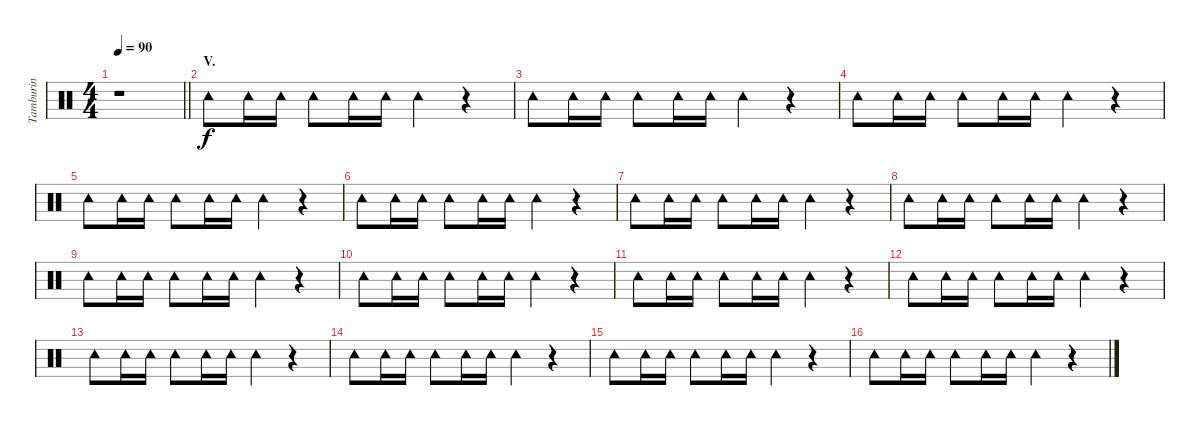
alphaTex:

\track ("Tamburin" "Tamburin") {instrument percussion}
\staff {score}
\articulation defaults
\ts (4 4)
\tempo 90
\clef neutral
\barLineRight lightlight
\ks c
r.1{dy f} |
\section ("" "V.")
"Tambourine (hit)".8 "Tambourine (hit)".16 "Tambourine (hit)".16 "Tambourine (hit)".8 "Tambourine (hit)".16 "Tambourine (hit)".16 "Tambourine (hit)".4 r.4 |
"Tambourine (hit)".8 "Tambourine (hit)".16 "Tambourine (hit)".16 "Tambourine (hit)".8 "Tambourine (hit)".16 "Tambourine (hit)".16 "Tambourine (hit)".4 r.4 |
"Tambourine (hit)".8 "Tambourine (hit)".16 "Tambourine (hit)".16 "Tambourine (hit)".8 "Tambourine (hit)".16 "Tambourine (hit)".16 "Tambourine (hit)".4 r.4 |
"Tambourine (hit)".8 "Tambourine (hit)".16 "Tambourine (hit)".16 "Tambourine (hit)".8 "Tambourine (hit)".16 "Tambourine (hit)".16 "Tambourine (hit)".4 r.4 |
"Tambourine (hit)".8 "Tambourine (hit)".16 "Tambourine (hit)".16 "Tambourine (hit)".8 "Tambourine (hit)".16 "Tambourine (hit)".16 "Tambourine (hit)".4 r.4 |
"Tambourine (hit)".8 "Tambourine (hit)".16 "Tambourine (hit)".16 "Tambourine (hit)".8 "Tambourine (hit)".16 "Tambourine (hit)".16 "Tambourine (hit)".4 r.4 |
"Tambourine (hit)".8 "Tambourine (hit)".16 "Tambourine (hit)".16 "Tambourine (hit)".8 "Tambourine (hit)".16 "Tambourine (hit)".16 "Tambourine (hit)".4 r.4 |
"Tambourine (hit)".8 "Tambourine (hit)".16 "Tambourine (hit)".16 "Tambourine (hit)".8 "Tambourine (hit)".16 "Tambourine (hit)".16 "Tambourine (hit)".4 r.4 |
"Tambourine (hit)".8 "Tambourine (hit)".16 "Tambourine (hit)".16 "Tambourine (hit)".8 "Tambourine (hit)".16 "Tambourine (hit)".16 "Tambourine (hit)".4 r.4 |
"Tambourine (hit)".8 "Tambourine (hit)".16 "Tambourine (hit)".16 "Tambourine (hit)".8 "Tambourine (hit)".16 "Tambourine (hit)".16 "Tambourine (hit)".4 r.4 |
"Tambourine (hit)".8 "Tambourine (hit)".16 "Tambourine (hit)".16 "Tambourine (hit)".8 "Tambourine (hit)".16 "Tambourine (hit)".16 "Tambourine (hit)".4 r.4 |
"Tambourine (hit)".8 "Tambourine (hit)".16 "Tambourine (hit)".16 "Tambourine (hit)".8 "Tambourine (hit)".16 "Tambourine (hit)".16 "Tambourine (hit)".4 r.4 |
"Tambourine (hit)".8 "Tambourine (hit)".16 "Tambourine (hit)".16 "Tambourine (hit)".8 "Tambourine (hit)".16 "Tambourine (hit)".16 "Tambourine (hit)".4 r.4 |
"Tambourine (hit)".8 "Tambourine (hit)".16 "Tambourine (hit)".16 "Tambourine (hit)".8 "Tambourine (hit)".16 "Tambourine (hit)".16 "Tambourine (hit)".4 r.4 |
"Tambourine (hit)".8 "Tambourine (hit)".16 "Tambourine (hit)".16 "Tambourine (hit)".8 "Tambourine (hit)".16 "Tambourine (hit)".16 "Tambourine (hit)".4 r.4
